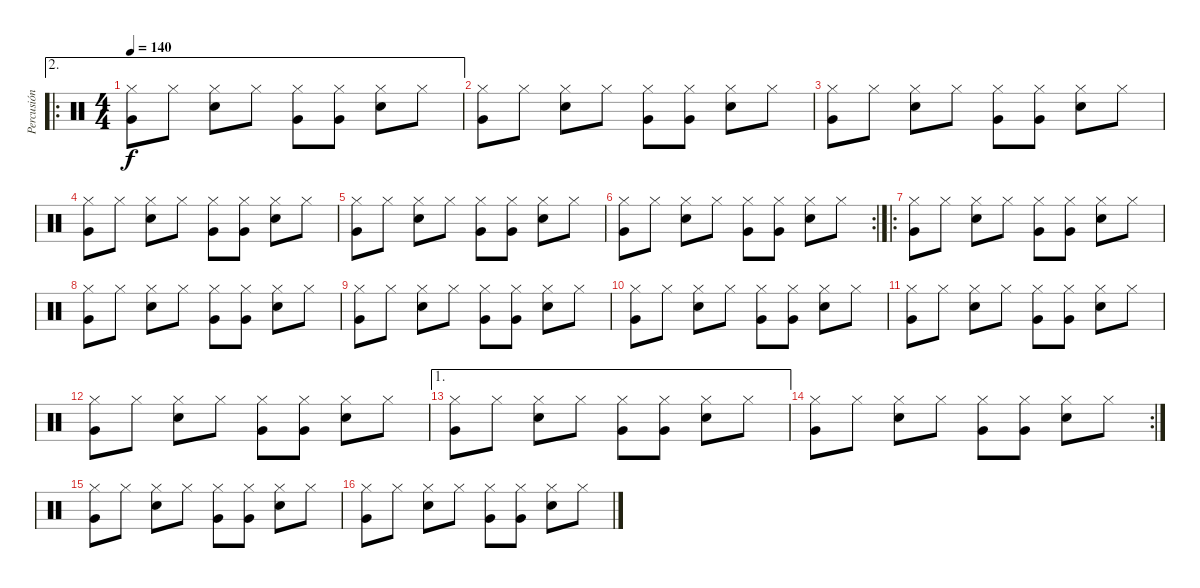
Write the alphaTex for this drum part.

\track ("Percusión" "Percusión") {instrument percussion}
\staff {score}
\articulation defaults
\ae 2
\ro
\ts (4 4)
\tempo 140
\clef neutral
\ks c
("Hi-Hat (closed)" "Very Low Tom (hit)").8{dy f} "Hi-Hat (closed)".8 ("Hi-Hat (closed)" "Snare (hit) 2").8 "Hi-Hat (closed)".8 ("Hi-Hat (closed)" "Very Low Tom (hit)").8 ("Hi-Hat (closed)" "Very Low Tom (hit)").8 ("Hi-Hat (closed)" "Snare (hit) 2").8 "Hi-Hat (closed)".8 |
("Hi-Hat (closed)" "Very Low Tom (hit)").8 "Hi-Hat (closed)".8 ("Hi-Hat (closed)" "Snare (hit) 2").8 "Hi-Hat (closed)".8 ("Hi-Hat (closed)" "Very Low Tom (hit)").8 ("Hi-Hat (closed)" "Very Low Tom (hit)").8 ("Hi-Hat (closed)" "Snare (hit) 2").8 "Hi-Hat (closed)".8 |
("Hi-Hat (closed)" "Very Low Tom (hit)").8 "Hi-Hat (closed)".8 ("Hi-Hat (closed)" "Snare (hit) 2").8 "Hi-Hat (closed)".8 ("Hi-Hat (closed)" "Very Low Tom (hit)").8 ("Hi-Hat (closed)" "Very Low Tom (hit)").8 ("Hi-Hat (closed)" "Snare (hit) 2").8 "Hi-Hat (closed)".8 |
("Hi-Hat (closed)" "Very Low Tom (hit)").8 "Hi-Hat (closed)".8 ("Hi-Hat (closed)" "Snare (hit) 2").8 "Hi-Hat (closed)".8 ("Hi-Hat (closed)" "Very Low Tom (hit)").8 ("Hi-Hat (closed)" "Very Low Tom (hit)").8 ("Hi-Hat (closed)" "Snare (hit) 2").8 "Hi-Hat (closed)".8 |
("Hi-Hat (closed)" "Very Low Tom (hit)").8 "Hi-Hat (closed)".8 ("Hi-Hat (closed)" "Snare (hit) 2").8 "Hi-Hat (closed)".8 ("Hi-Hat (closed)" "Very Low Tom (hit)").8 ("Hi-Hat (closed)" "Very Low Tom (hit)").8 ("Hi-Hat (closed)" "Snare (hit) 2").8 "Hi-Hat (closed)".8 |
\rc 2
("Hi-Hat (closed)" "Very Low Tom (hit)").8 "Hi-Hat (closed)".8 ("Hi-Hat (closed)" "Snare (hit) 2").8 "Hi-Hat (closed)".8 ("Hi-Hat (closed)" "Very Low Tom (hit)").8 ("Hi-Hat (closed)" "Very Low Tom (hit)").8 ("Hi-Hat (closed)" "Snare (hit) 2").8 "Hi-Hat (closed)".8 |
\ro
("Hi-Hat (closed)" "Very Low Tom (hit)").8 "Hi-Hat (closed)".8 ("Hi-Hat (closed)" "Snare (hit) 2").8 "Hi-Hat (closed)".8 ("Hi-Hat (closed)" "Very Low Tom (hit)").8 ("Hi-Hat (closed)" "Very Low Tom (hit)").8 ("Hi-Hat (closed)" "Snare (hit) 2").8 "Hi-Hat (closed)".8 |
("Hi-Hat (closed)" "Very Low Tom (hit)").8 "Hi-Hat (closed)".8 ("Hi-Hat (closed)" "Snare (hit) 2").8 "Hi-Hat (closed)".8 ("Hi-Hat (closed)" "Very Low Tom (hit)").8 ("Hi-Hat (closed)" "Very Low Tom (hit)").8 ("Hi-Hat (closed)" "Snare (hit) 2").8 "Hi-Hat (closed)".8 |
("Hi-Hat (closed)" "Very Low Tom (hit)").8 "Hi-Hat (closed)".8 ("Hi-Hat (closed)" "Snare (hit) 2").8 "Hi-Hat (closed)".8 ("Hi-Hat (closed)" "Very Low Tom (hit)").8 ("Hi-Hat (closed)" "Very Low Tom (hit)").8 ("Hi-Hat (closed)" "Snare (hit) 2").8 "Hi-Hat (closed)".8 |
("Hi-Hat (closed)" "Very Low Tom (hit)").8 "Hi-Hat (closed)".8 ("Hi-Hat (closed)" "Snare (hit) 2").8 "Hi-Hat (closed)".8 ("Hi-Hat (closed)" "Very Low Tom (hit)").8 ("Hi-Hat (closed)" "Very Low Tom (hit)").8 ("Hi-Hat (closed)" "Snare (hit) 2").8 "Hi-Hat (closed)".8 |
("Hi-Hat (closed)" "Very Low Tom (hit)").8 "Hi-Hat (closed)".8 ("Hi-Hat (closed)" "Snare (hit) 2").8 "Hi-Hat (closed)".8 ("Hi-Hat (closed)" "Very Low Tom (hit)").8 ("Hi-Hat (closed)" "Very Low Tom (hit)").8 ("Hi-Hat (closed)" "Snare (hit) 2").8 "Hi-Hat (closed)".8 |
("Hi-Hat (closed)" "Very Low Tom (hit)").8 "Hi-Hat (closed)".8 ("Hi-Hat (closed)" "Snare (hit) 2").8 "Hi-Hat (closed)".8 ("Hi-Hat (closed)" "Very Low Tom (hit)").8 ("Hi-Hat (closed)" "Very Low Tom (hit)").8 ("Hi-Hat (closed)" "Snare (hit) 2").8 "Hi-Hat (closed)".8 |
\ae 1
("Hi-Hat (closed)" "Very Low Tom (hit)").8 "Hi-Hat (closed)".8 ("Hi-Hat (closed)" "Snare (hit) 2").8 "Hi-Hat (closed)".8 ("Hi-Hat (closed)" "Very Low Tom (hit)").8 ("Hi-Hat (closed)" "Very Low Tom (hit)").8 ("Hi-Hat (closed)" "Snare (hit) 2").8 "Hi-Hat (closed)".8 |
\rc 2
("Hi-Hat (closed)" "Very Low Tom (hit)").8 "Hi-Hat (closed)".8 ("Hi-Hat (closed)" "Snare (hit) 2").8 "Hi-Hat (closed)".8 ("Hi-Hat (closed)" "Very Low Tom (hit)").8 ("Hi-Hat (closed)" "Very Low Tom (hit)").8 ("Hi-Hat (closed)" "Snare (hit) 2").8 "Hi-Hat (closed)".8 |
("Hi-Hat (closed)" "Very Low Tom (hit)").8 "Hi-Hat (closed)".8 ("Hi-Hat (closed)" "Snare (hit) 2").8 "Hi-Hat (closed)".8 ("Hi-Hat (closed)" "Very Low Tom (hit)").8 ("Hi-Hat (closed)" "Very Low Tom (hit)").8 ("Hi-Hat (closed)" "Snare (hit) 2").8 "Hi-Hat (closed)".8 |
("Hi-Hat (closed)" "Very Low Tom (hit)").8 "Hi-Hat (closed)".8 ("Hi-Hat (closed)" "Snare (hit) 2").8 "Hi-Hat (closed)".8 ("Hi-Hat (closed)" "Very Low Tom (hit)").8 ("Hi-Hat (closed)" "Very Low Tom (hit)").8 ("Hi-Hat (closed)" "Snare (hit) 2").8 "Hi-Hat (closed)".8
